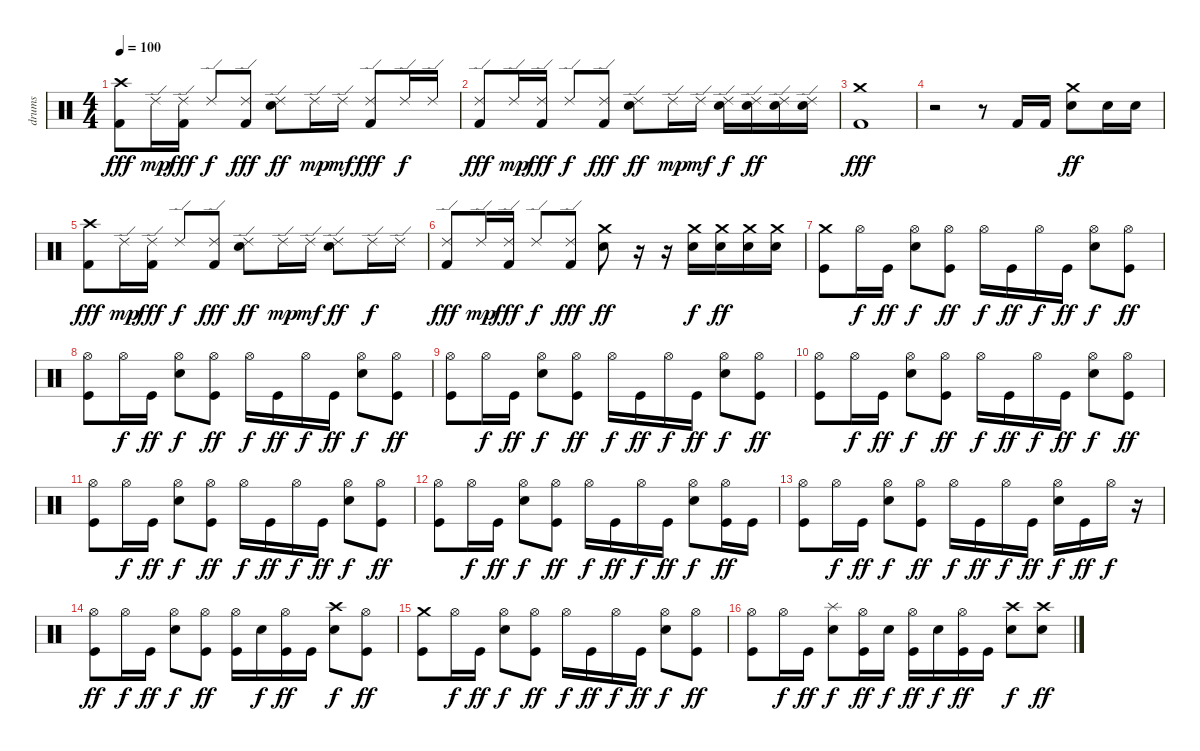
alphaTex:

\track ("drums" "drums") {instrument percussion}
\staff {score}
\articulation defaults
\ts (4 4)
\tempo 100
\clef neutral
\ks c
("Crash high (hit)" "Kick (hit) 2").8{dy fff} "Ride (edge) 2".16{dy mp} ("Ride (edge) 2" "Kick (hit) 2").16{dy fff} "Ride (edge) 2".8{dy f} ("Ride (edge) 2" "Kick (hit) 2").8{dy fff} ("Ride (edge) 2" "Snare (hit) 2").8{dy ff} "Ride (edge) 2".16{dy mp} "Ride (edge) 2".16{dy mf} ("Ride (edge) 2" "Kick (hit) 2").8{dy fff} "Ride (edge) 2".16{dy f} "Ride (edge) 2".16 |
("Ride (edge) 2" "Kick (hit) 2").8{dy fff} "Ride (edge) 2".16{dy mp} ("Ride (edge) 2" "Kick (hit) 2").16{dy fff} "Ride (edge) 2".8{dy f} ("Ride (edge) 2" "Kick (hit) 2").8{dy fff} ("Ride (edge) 2" "Snare (hit) 2").8{dy ff} "Ride (edge) 2".16{dy mp} "Ride (edge) 2".16{dy mf} ("Ride (edge) 2" "Snare (hit) 2").16{dy f} ("Ride (edge) 2" "Snare (hit) 2").16{dy ff} ("Ride (edge) 2" "Snare (hit) 2").16 ("Ride (edge) 2" "Snare (hit) 2").16 |
("Crash medium (hit)" "Kick (hit) 2").1{dy fff} |
r.2 r.8 "Kick (hit) 2".16 "Kick (hit) 2".16 ("Crash medium (hit)" "Snare (hit) 2").8{dy ff} "Snare (hit) 2".16 "Snare (hit) 2".16 |
("Crash high (hit)" "Kick (hit) 2").8{dy fff} "Ride (edge) 2".16{dy mp} ("Ride (edge) 2" "Kick (hit) 2").16{dy fff} "Ride (edge) 2".8{dy f} ("Ride (edge) 2" "Kick (hit) 2").8{dy fff} ("Ride (edge) 2" "Snare (hit) 2").8{dy ff} "Ride (edge) 2".16{dy mp} "Ride (edge) 2".16{dy mf} ("Ride (edge) 2" "Snare (hit) 2").8{dy ff} "Ride (edge) 2".16{dy f} "Ride (edge) 2".16 |
("Ride (edge) 2" "Kick (hit) 2").8{dy fff} "Ride (edge) 2".16{dy mp} ("Ride (edge) 2" "Kick (hit) 2").16{dy fff} "Ride (edge) 2".8{dy f} ("Ride (edge) 2" "Kick (hit) 2").8{dy fff} ("Crash medium (hit)" "Snare (hit) 2").8{dy ff} r.16 r.16 ("Crash medium (hit)" "Snare (hit) 2").16{dy f} ("Crash medium (hit)" "Snare (hit) 2").16{dy ff} ("Crash medium (hit)" "Snare (hit) 2").16 ("Crash medium (hit)" "Snare (hit) 2").16 |
("Crash medium (hit)" "Kick (hit)").8 "Hi-Hat (open)".16{dy f} "Kick (hit)".16{dy ff} ("Hi-Hat (open)" "Snare (hit) 2").8{dy f} ("Hi-Hat (open)" "Kick (hit)").8{dy ff} "Hi-Hat (open)".16{dy f} "Kick (hit)".16{dy ff} "Hi-Hat (open)".16{dy f} "Kick (hit)".16{dy ff} ("Hi-Hat (open)" "Snare (hit) 2").8{dy f} ("Hi-Hat (open)" "Kick (hit)").8{dy ff} |
("Hi-Hat (open)" "Kick (hit)").8 "Hi-Hat (open)".16{dy f} "Kick (hit)".16{dy ff} ("Hi-Hat (open)" "Snare (hit) 2").8{dy f} ("Hi-Hat (open)" "Kick (hit)").8{dy ff} "Hi-Hat (open)".16{dy f} "Kick (hit)".16{dy ff} "Hi-Hat (open)".16{dy f} "Kick (hit)".16{dy ff} ("Hi-Hat (open)" "Snare (hit) 2").8{dy f} ("Hi-Hat (open)" "Kick (hit)").8{dy ff} |
("Hi-Hat (open)" "Kick (hit)").8 "Hi-Hat (open)".16{dy f} "Kick (hit)".16{dy ff} ("Hi-Hat (open)" "Snare (hit) 2").8{dy f} ("Hi-Hat (open)" "Kick (hit)").8{dy ff} "Hi-Hat (open)".16{dy f} "Kick (hit)".16{dy ff} "Hi-Hat (open)".16{dy f} "Kick (hit)".16{dy ff} ("Hi-Hat (open)" "Snare (hit) 2").8{dy f} ("Hi-Hat (open)" "Kick (hit)").8{dy ff} |
("Hi-Hat (open)" "Kick (hit)").8 "Hi-Hat (open)".16{dy f} "Kick (hit)".16{dy ff} ("Hi-Hat (open)" "Snare (hit) 2").8{dy f} ("Hi-Hat (open)" "Kick (hit)").8{dy ff} "Hi-Hat (open)".16{dy f} "Kick (hit)".16{dy ff} "Hi-Hat (open)".16{dy f} "Kick (hit)".16{dy ff} ("Hi-Hat (open)" "Snare (hit) 2").8{dy f} ("Hi-Hat (open)" "Kick (hit)").8{dy ff} |
("Hi-Hat (open)" "Kick (hit)").8 "Hi-Hat (open)".16{dy f} "Kick (hit)".16{dy ff} ("Hi-Hat (open)" "Snare (hit) 2").8{dy f} ("Hi-Hat (open)" "Kick (hit)").8{dy ff} "Hi-Hat (open)".16{dy f} "Kick (hit)".16{dy ff} "Hi-Hat (open)".16{dy f} "Kick (hit)".16{dy ff} ("Hi-Hat (open)" "Snare (hit) 2").8{dy f} ("Hi-Hat (open)" "Kick (hit)").8{dy ff} |
("Hi-Hat (open)" "Kick (hit)").8 "Hi-Hat (open)".16{dy f} "Kick (hit)".16{dy ff} ("Hi-Hat (open)" "Snare (hit) 2").8{dy f} ("Hi-Hat (open)" "Kick (hit)").8{dy ff} "Hi-Hat (open)".16{dy f} "Kick (hit)".16{dy ff} "Hi-Hat (open)".16{dy f} "Kick (hit)".16{dy ff} ("Hi-Hat (open)" "Snare (hit) 2").8{dy f} ("Hi-Hat (open)" "Kick (hit)").16{dy ff} "Kick (hit)".16 |
("Hi-Hat (open)" "Kick (hit)").8 "Hi-Hat (open)".16{dy f} "Kick (hit)".16{dy ff} ("Hi-Hat (open)" "Snare (hit) 2").8{dy f} ("Hi-Hat (open)" "Kick (hit)").8{dy ff} "Hi-Hat (open)".16{dy f} "Kick (hit)".16{dy ff} "Hi-Hat (open)".16{dy f} "Kick (hit)".16{dy ff} ("Hi-Hat (open)" "Snare (hit) 2").16{dy f} "Kick (hit)".16{dy ff} "Hi-Hat (open)".16{dy f} r.16 |
("Hi-Hat (open)" "Kick (hit)").8{dy ff} "Hi-Hat (open)".16{dy f} "Kick (hit)".16{dy ff} ("Hi-Hat (open)" "Snare (hit) 2").8{dy f} ("Hi-Hat (open)" "Kick (hit)").8{dy ff} ("Hi-Hat (open)" "Kick (hit)").16 "Snare (hit) 2".16{dy f} ("Hi-Hat (open)" "Kick (hit)").16{dy ff} "Kick (hit)".16 ("Crash high (hit)" "Snare (hit) 2").8{dy f} ("Hi-Hat (open)" "Kick (hit)").8{dy ff} |
("Crash medium (hit)" "Kick (hit)").8 "Hi-Hat (open)".16{dy f} "Kick (hit)".16{dy ff} ("Hi-Hat (open)" "Snare (hit) 2").8{dy f} ("Hi-Hat (open)" "Kick (hit)").8{dy ff} "Hi-Hat (open)".16{dy f} "Kick (hit)".16{dy ff} "Hi-Hat (open)".16{dy f} "Kick (hit)".16{dy ff} ("Hi-Hat (open)" "Snare (hit) 2").8{dy f} ("Hi-Hat (open)" "Kick (hit)").8{dy ff} |
("Hi-Hat (open)" "Kick (hit)").8 "Hi-Hat (open)".16{dy f} "Kick (hit)".16{dy ff} ("Splash (hit)" "Snare (hit) 2").8{dy f} ("Hi-Hat (open)" "Kick (hit)").16{dy ff} "Snare (hit) 2".16{dy f} ("Hi-Hat (open)" "Kick (hit)").16{dy ff} "Snare (hit) 2".16{dy f} ("Hi-Hat (open)" "Kick (hit)").16{dy ff} "Kick (hit)".16 ("Crash high (hit)" "Snare (hit) 2").8{dy f} ("Crash high (hit)" "Snare (hit) 2").8{dy ff}
